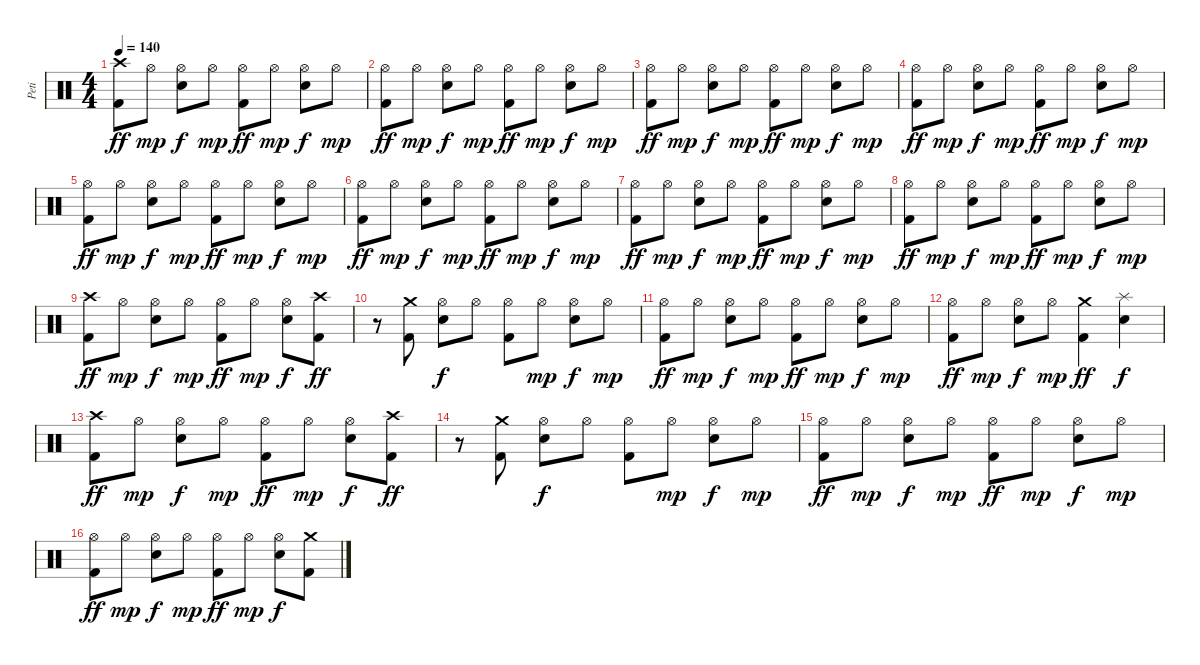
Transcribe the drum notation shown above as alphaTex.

\track ("Peti" "Peti") {instrument percussion}
\staff {score}
\articulation defaults
\ts (4 4)
\tempo 140
\clef neutral
\ks c
("Crash high (hit)" "Kick (hit) 2").8{dy ff} "Hi-Hat (open)".8{dy mp} ("Hi-Hat (open)" "Snare (hit) 2").8{dy f} "Hi-Hat (open)".8{dy mp} ("Hi-Hat (open)" "Kick (hit) 2").8{dy ff} "Hi-Hat (open)".8{dy mp} ("Hi-Hat (open)" "Snare (hit) 2").8{dy f} "Hi-Hat (open)".8{dy mp} |
("Hi-Hat (open)" "Kick (hit) 2").8{dy ff} "Hi-Hat (open)".8{dy mp} ("Hi-Hat (open)" "Snare (hit) 2").8{dy f} "Hi-Hat (open)".8{dy mp} ("Hi-Hat (open)" "Kick (hit) 2").8{dy ff} "Hi-Hat (open)".8{dy mp} ("Hi-Hat (open)" "Snare (hit) 2").8{dy f} "Hi-Hat (open)".8{dy mp} |
("Hi-Hat (open)" "Kick (hit) 2").8{dy ff} "Hi-Hat (open)".8{dy mp} ("Hi-Hat (open)" "Snare (hit) 2").8{dy f} "Hi-Hat (open)".8{dy mp} ("Hi-Hat (open)" "Kick (hit) 2").8{dy ff} "Hi-Hat (open)".8{dy mp} ("Hi-Hat (open)" "Snare (hit) 2").8{dy f} "Hi-Hat (open)".8{dy mp} |
("Hi-Hat (open)" "Kick (hit) 2").8{dy ff} "Hi-Hat (open)".8{dy mp} ("Hi-Hat (open)" "Snare (hit) 2").8{dy f} "Hi-Hat (open)".8{dy mp} ("Hi-Hat (open)" "Kick (hit) 2").8{dy ff} "Hi-Hat (open)".8{dy mp} ("Hi-Hat (open)" "Snare (hit) 2").8{dy f} "Hi-Hat (open)".8{dy mp} |
("Hi-Hat (open)" "Kick (hit) 2").8{dy ff} "Hi-Hat (open)".8{dy mp} ("Hi-Hat (open)" "Snare (hit) 2").8{dy f} "Hi-Hat (open)".8{dy mp} ("Hi-Hat (open)" "Kick (hit) 2").8{dy ff} "Hi-Hat (open)".8{dy mp} ("Hi-Hat (open)" "Snare (hit) 2").8{dy f} "Hi-Hat (open)".8{dy mp} |
("Hi-Hat (open)" "Kick (hit) 2").8{dy ff} "Hi-Hat (open)".8{dy mp} ("Hi-Hat (open)" "Snare (hit) 2").8{dy f} "Hi-Hat (open)".8{dy mp} ("Hi-Hat (open)" "Kick (hit) 2").8{dy ff} "Hi-Hat (open)".8{dy mp} ("Hi-Hat (open)" "Snare (hit) 2").8{dy f} "Hi-Hat (open)".8{dy mp} |
("Hi-Hat (open)" "Kick (hit) 2").8{dy ff} "Hi-Hat (open)".8{dy mp} ("Hi-Hat (open)" "Snare (hit) 2").8{dy f} "Hi-Hat (open)".8{dy mp} ("Hi-Hat (open)" "Kick (hit) 2").8{dy ff} "Hi-Hat (open)".8{dy mp} ("Hi-Hat (open)" "Snare (hit) 2").8{dy f} "Hi-Hat (open)".8{dy mp} |
("Hi-Hat (open)" "Kick (hit) 2").8{dy ff} "Hi-Hat (open)".8{dy mp} ("Hi-Hat (open)" "Snare (hit) 2").8{dy f} "Hi-Hat (open)".8{dy mp} ("Hi-Hat (open)" "Kick (hit) 2").8{dy ff} "Hi-Hat (open)".8{dy mp} ("Hi-Hat (open)" "Snare (hit) 2").8{dy f} "Hi-Hat (open)".8{dy mp} |
("Crash high (hit)" "Kick (hit) 2").8{dy ff} "Hi-Hat (open)".8{dy mp} ("Hi-Hat (open)" "Snare (hit) 2").8{dy f} "Hi-Hat (open)".8{dy mp} ("Hi-Hat (open)" "Kick (hit) 2").8{dy ff} "Hi-Hat (open)".8{dy mp} ("Hi-Hat (open)" "Snare (hit) 2").8{dy f} ("Crash high (hit)" "Kick (hit) 2").8{dy ff} |
r.8 ("Crash medium (hit)" "Kick (hit) 2").8 ("Hi-Hat (open)" "Snare (hit) 2").8{dy f} "Hi-Hat (open)".8 ("Hi-Hat (open)" "Kick (hit) 2").8 "Hi-Hat (open)".8{dy mp} ("Hi-Hat (open)" "Snare (hit) 2").8{dy f} "Hi-Hat (open)".8{dy mp} |
("Hi-Hat (open)" "Kick (hit) 2").8{dy ff} "Hi-Hat (open)".8{dy mp} ("Hi-Hat (open)" "Snare (hit) 2").8{dy f} "Hi-Hat (open)".8{dy mp} ("Hi-Hat (open)" "Kick (hit) 2").8{dy ff} "Hi-Hat (open)".8{dy mp} ("Hi-Hat (open)" "Snare (hit) 2").8{dy f} "Hi-Hat (open)".8{dy mp} |
("Hi-Hat (open)" "Kick (hit) 2").8{dy ff} "Hi-Hat (open)".8{dy mp} ("Hi-Hat (open)" "Snare (hit) 2").8{dy f} "Hi-Hat (open)".8{dy mp} ("Crash medium (hit)" "Kick (hit) 2").4{dy ff} ("Splash (hit)" "Snare (hit) 2").4{dy f} |
("Crash high (hit)" "Kick (hit) 2").8{dy ff} "Hi-Hat (open)".8{dy mp} ("Hi-Hat (open)" "Snare (hit) 2").8{dy f} "Hi-Hat (open)".8{dy mp} ("Hi-Hat (open)" "Kick (hit) 2").8{dy ff} "Hi-Hat (open)".8{dy mp} ("Hi-Hat (open)" "Snare (hit) 2").8{dy f} ("Crash high (hit)" "Kick (hit) 2").8{dy ff} |
r.8 ("Crash medium (hit)" "Kick (hit) 2").8 ("Hi-Hat (open)" "Snare (hit) 2").8{dy f} "Hi-Hat (open)".8 ("Hi-Hat (open)" "Kick (hit) 2").8 "Hi-Hat (open)".8{dy mp} ("Hi-Hat (open)" "Snare (hit) 2").8{dy f} "Hi-Hat (open)".8{dy mp} |
("Hi-Hat (open)" "Kick (hit) 2").8{dy ff} "Hi-Hat (open)".8{dy mp} ("Hi-Hat (open)" "Snare (hit) 2").8{dy f} "Hi-Hat (open)".8{dy mp} ("Hi-Hat (open)" "Kick (hit) 2").8{dy ff} "Hi-Hat (open)".8{dy mp} ("Hi-Hat (open)" "Snare (hit) 2").8{dy f} "Hi-Hat (open)".8{dy mp} |
("Hi-Hat (open)" "Kick (hit) 2").8{dy ff} "Hi-Hat (open)".8{dy mp} ("Hi-Hat (open)" "Snare (hit) 2").8{dy f} "Hi-Hat (open)".8{dy mp} ("Hi-Hat (open)" "Kick (hit) 2").8{dy ff} "Hi-Hat (open)".8{dy mp} ("Hi-Hat (open)" "Snare (hit) 2").8{dy f} ("Crash medium (hit)" "Kick (hit) 2").8
